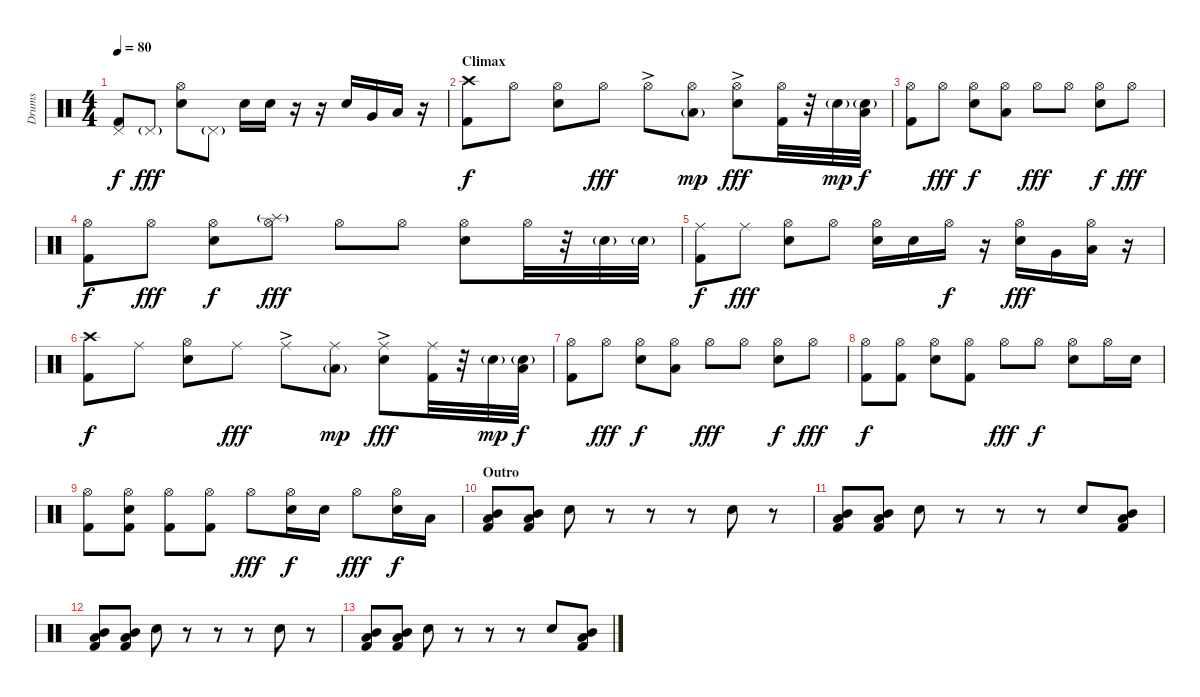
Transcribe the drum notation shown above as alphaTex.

\track ("Drums" "Drums") {instrument percussion}
\staff {score}
\articulation defaults
\ts (4 4)
\tempo 80
\clef neutral
\ks c
("Pedal Hi-Hat (hit)" "Kick (hit) 2").8{dy f} "Pedal Hi-Hat (hit)"{g}.8{dy fff} ("Hi-Hat (open)" "Electric Snare (hit)").8 "Pedal Hi-Hat (hit)"{g}.8 "Electric Snare (hit)".16 "Electric Snare (hit)".16 r.16 r.16 "Electric Snare (hit)".16 "Very Low Tom (hit)".16 "Low Floor Tom (hit)".16 r.16 |
\section ("" "Climax")
("Crash high (hit)" "Kick (hit) 2").8{dy f} "Hi-Hat (open)".8 ("Hi-Hat (open)" "Electric Snare (hit)").8 "Hi-Hat (open)".8{dy fff} "Hi-Hat (open)"{ac}.8 ("Hi-Hat (open)" "Low Floor Tom (hit)"{g}).8{dy mp} ("Hi-Hat (open)"{ac} "Electric Snare (hit)"{ac}).8{dy fff} ("Hi-Hat (open)" "Kick (hit) 2").32 r.32 "Electric Snare (hit)"{g}.32{dy mp} ("Electric Snare (hit)"{g} "Low Floor Tom (hit)").32{dy f} |
("Hi-Hat (open)" "Kick (hit) 2").8 "Hi-Hat (open)".8{dy fff} ("Hi-Hat (open)" "Electric Snare (hit)").8{dy f} ("Hi-Hat (open)" "Low Floor Tom (hit)").8 "Hi-Hat (open)".8{dy fff} "Hi-Hat (open)".8 ("Hi-Hat (open)" "Electric Snare (hit)").8{dy f} "Hi-Hat (open)".8{dy fff} |
("Hi-Hat (open)" "Kick (hit) 2").8{dy f} "Hi-Hat (open)".8{dy fff} ("Hi-Hat (open)" "Electric Snare (hit)").8{dy f} ("Splash (hit)"{g} "Hi-Hat (open)").8{dy fff} "Hi-Hat (open)".8 "Hi-Hat (open)".8 ("Hi-Hat (open)" "Electric Snare (hit)").8 "Hi-Hat (open)".32 r.32 "Electric Snare (hit)"{g}.32 "Electric Snare (hit)"{g}.32 |
("Ride (middle)" "Kick (hit) 2").8{dy f} "Ride (middle)".8{dy fff} ("Hi-Hat (open)" "Electric Snare (hit)").8 "Hi-Hat (open)".8 ("Hi-Hat (open)" "Electric Snare (hit)").16 "Electric Snare (hit)".16 "Hi-Hat (open)".16{dy f} r.16 ("Hi-Hat (open)" "Electric Snare (hit)").16{dy fff} "Very Low Tom (hit)".16 ("Hi-Hat (open)" "Low Floor Tom (hit)").16 r.16 |
("Crash high (hit)" "Kick (hit) 2").8{dy f} "Ride (middle)".8 ("Hi-Hat (open)" "Electric Snare (hit)").8 "Ride (middle)".8{dy fff} "Ride (middle)"{ac}.8 ("Ride (middle)" "Low Floor Tom (hit)"{g}).8{dy mp} ("Ride (middle)"{ac} "Electric Snare (hit)"{ac}).8{dy fff} ("Ride (middle)" "Kick (hit) 2").32 r.32 "Electric Snare (hit)"{g}.32{dy mp} ("Electric Snare (hit)"{g} "Low Floor Tom (hit)").32{dy f} |
("Hi-Hat (open)" "Kick (hit) 2").8 "Hi-Hat (open)".8{dy fff} ("Hi-Hat (open)" "Electric Snare (hit)").8{dy f} ("Hi-Hat (open)" "Low Floor Tom (hit)").8 "Hi-Hat (open)".8{dy fff} "Hi-Hat (open)".8 ("Hi-Hat (open)" "Electric Snare (hit)").8{dy f} "Hi-Hat (open)".8{dy fff} |
("Hi-Hat (open)" "Kick (hit) 2").8{dy f} ("Hi-Hat (open)" "Kick (hit) 2").8 ("Hi-Hat (open)" "Electric Snare (hit)").8 ("Hi-Hat (open)" "Kick (hit) 2").8 "Hi-Hat (open)".8{dy fff} "Hi-Hat (open)".8{dy f} ("Hi-Hat (open)" "Electric Snare (hit)").8 "Hi-Hat (open)".16 "Electric Snare (hit)".16 |
("Hi-Hat (open)" "Kick (hit) 2").8 ("Hi-Hat (open)" "Electric Snare (hit)" "Kick (hit) 2").8 ("Hi-Hat (open)" "Kick (hit) 2").8 ("Hi-Hat (open)" "Kick (hit) 2").8 "Hi-Hat (open)".8{dy fff} ("Hi-Hat (open)" "Electric Snare (hit)").16{dy f} "Electric Snare (hit)".16 "Hi-Hat (open)".8{dy fff} ("Hi-Hat (open)" "Electric Snare (hit)").16{dy f} "Low Floor Tom (hit)".16 |
\section ("" "Outro")
("Mid Tom (hit)" "Low Floor Tom (hit)" "Kick (hit) 2").8 ("Mid Tom (hit)" "Low Floor Tom (hit)" "Kick (hit) 2").8 "Electric Snare (hit)".8 r.8 r.8 r.8 "Electric Snare (hit)".8 r.8 |
("Mid Tom (hit)" "Low Floor Tom (hit)" "Kick (hit) 2").8 ("Mid Tom (hit)" "Low Floor Tom (hit)" "Kick (hit) 2").8 "Electric Snare (hit)".8 r.8 r.8 r.8 "Electric Snare (hit)".8 ("Mid Tom (hit)" "Low Floor Tom (hit)" "Kick (hit) 2").8 |
("Mid Tom (hit)" "Low Floor Tom (hit)" "Kick (hit) 2").8 ("Mid Tom (hit)" "Low Floor Tom (hit)" "Kick (hit) 2").8 "Electric Snare (hit)".8 r.8 r.8 r.8 "Electric Snare (hit)".8 r.8 |
("Mid Tom (hit)" "Low Floor Tom (hit)" "Kick (hit) 2").8 ("Mid Tom (hit)" "Low Floor Tom (hit)" "Kick (hit) 2").8 "Electric Snare (hit)".8 r.8 r.8 r.8 "Electric Snare (hit)".8 ("Mid Tom (hit)" "Low Floor Tom (hit)" "Kick (hit) 2").8
